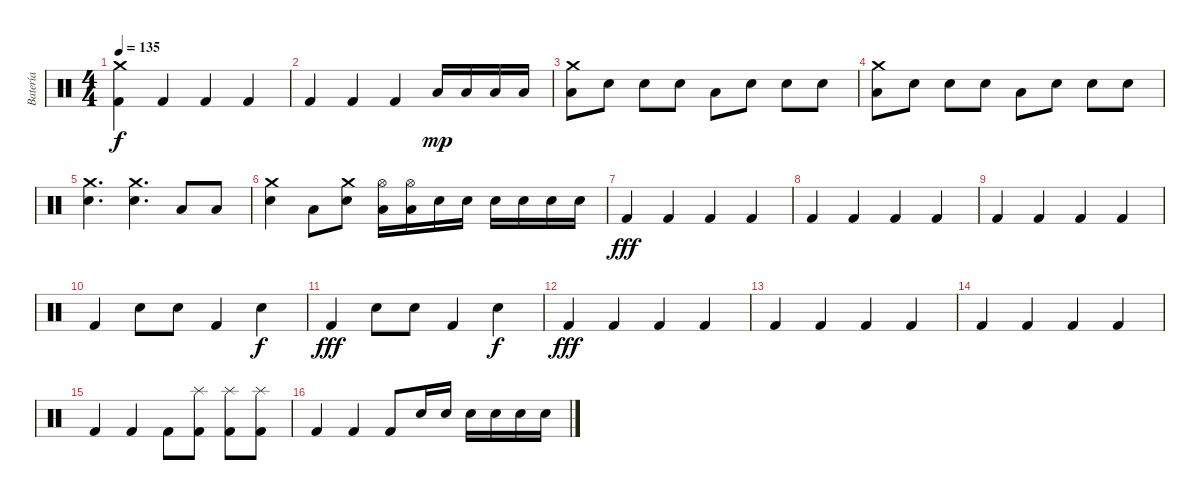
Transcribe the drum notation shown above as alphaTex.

\track ("Batería" "Batería") {instrument percussion}
\staff {score}
\articulation defaults
\ts (4 4)
\tempo 135
\clef neutral
\ks c
("Crash medium (hit)" "Kick (hit) 2").4{dy f} "Kick (hit) 2".4 "Kick (hit) 2".4 "Kick (hit) 2".4 |
"Kick (hit) 2".4 "Kick (hit) 2".4 "Kick (hit) 2".4 "Low Floor Tom (hit)".16{dy mp} "Low Floor Tom (hit)".16 "Low Floor Tom (hit)".16 "Low Floor Tom (hit)".16 |
("Crash medium (hit)" "Low Floor Tom (hit)").8 "Electric Snare (hit)".8 "Electric Snare (hit)".8 "Electric Snare (hit)".8 "Low Floor Tom (hit)".8 "Electric Snare (hit)".8 "Electric Snare (hit)".8 "Electric Snare (hit)".8 |
("Crash medium (hit)" "Low Floor Tom (hit)").8 "Electric Snare (hit)".8 "Electric Snare (hit)".8 "Electric Snare (hit)".8 "Low Floor Tom (hit)".8 "Electric Snare (hit)".8 "Electric Snare (hit)".8 "Electric Snare (hit)".8 |
("Crash medium (hit)" "Electric Snare (hit)").4{d} ("Crash medium (hit)" "Electric Snare (hit)").4{d} "Low Floor Tom (hit)".8 "Low Floor Tom (hit)".8 |
("Crash medium (hit)" "Electric Snare (hit)").4 "Low Floor Tom (hit)".8 ("Crash medium (hit)" "Electric Snare (hit)").8 ("Hi-Hat (open)" "Low Floor Tom (hit)").16 ("Hi-Hat (open)" "Low Floor Tom (hit)").16 "Electric Snare (hit)".16 "Electric Snare (hit)".16 "Electric Snare (hit)".16 "Electric Snare (hit)".16 "Electric Snare (hit)".16 "Electric Snare (hit)".16 |
"Kick (hit) 2".4{dy fff} "Kick (hit) 2".4 "Kick (hit) 2".4 "Kick (hit) 2".4 |
"Kick (hit) 2".4 "Kick (hit) 2".4 "Kick (hit) 2".4 "Kick (hit) 2".4 |
"Kick (hit) 2".4 "Kick (hit) 2".4 "Kick (hit) 2".4 "Kick (hit) 2".4 |
"Kick (hit) 2".4 "Electric Snare (hit)".8 "Electric Snare (hit)".8 "Kick (hit) 2".4 "Electric Snare (hit)".4{dy f} |
"Kick (hit) 2".4{dy fff} "Electric Snare (hit)".8 "Electric Snare (hit)".8 "Kick (hit) 2".4 "Electric Snare (hit)".4{dy f} |
"Kick (hit) 2".4{dy fff} "Kick (hit) 2".4 "Kick (hit) 2".4 "Kick (hit) 2".4 |
"Kick (hit) 2".4 "Kick (hit) 2".4 "Kick (hit) 2".4 "Kick (hit) 2".4 |
"Kick (hit) 2".4 "Kick (hit) 2".4 "Kick (hit) 2".4 "Kick (hit) 2".4 |
"Kick (hit) 2".4 "Kick (hit) 2".4 "Kick (hit) 2".8 ("Splash (hit)" "Kick (hit) 2").8 ("Splash (hit)" "Kick (hit) 2").8 ("Splash (hit)" "Kick (hit) 2").8 |
"Kick (hit) 2".4 "Kick (hit) 2".4 "Kick (hit) 2".8 "Electric Snare (hit)".16 "Electric Snare (hit)".16 "Electric Snare (hit)".16 "Electric Snare (hit)".16 "Electric Snare (hit)".16 "Electric Snare (hit)".16
